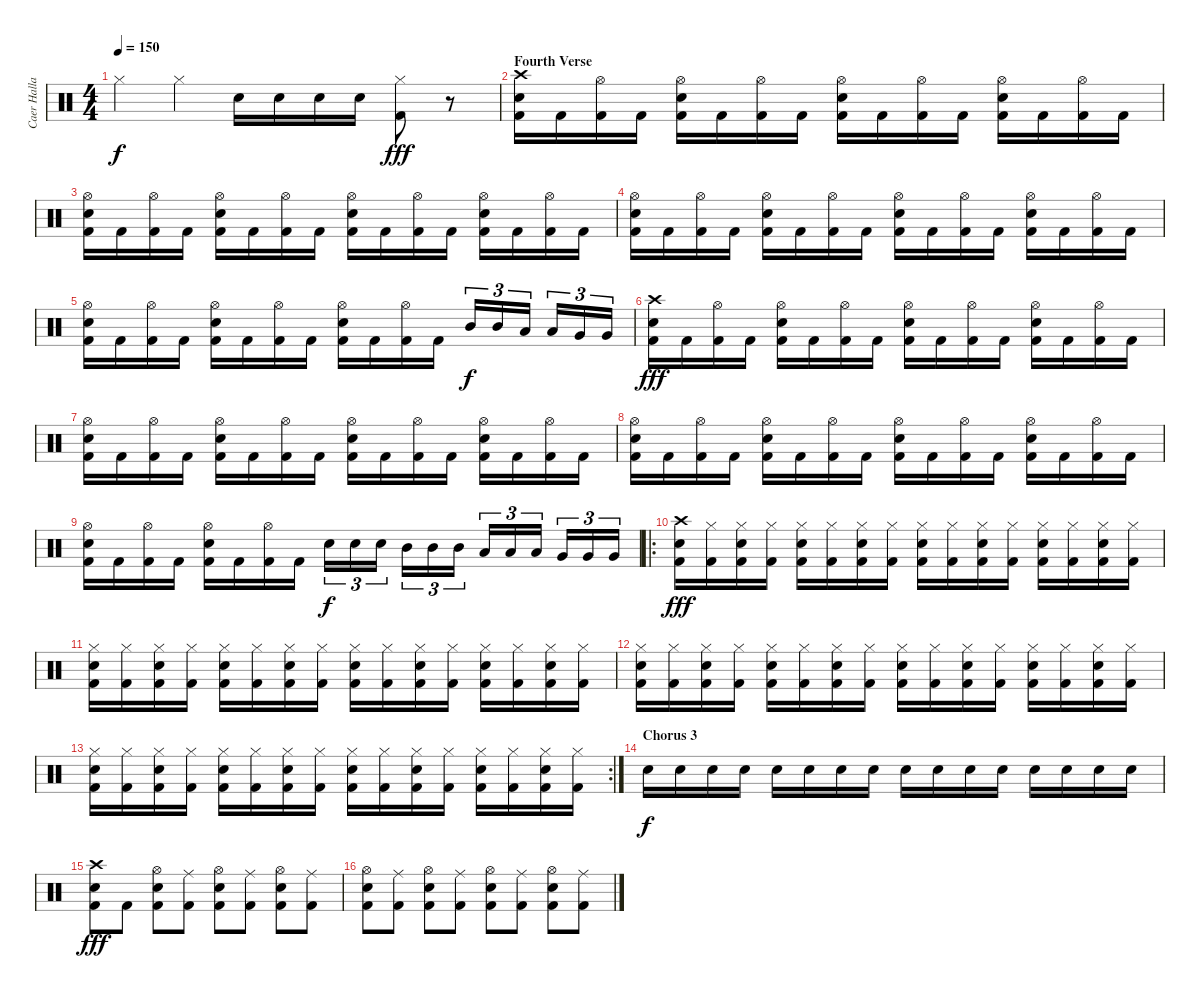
\track ("Caer Hallam Generis" "Caer Halla") {instrument percussion}
\staff {score}
\articulation defaults
\ts (4 4)
\tempo 150
\clef neutral
\ks c "Hi-Hat (closed)".4{dy f} "Hi-Hat (closed)".4 "Snare (hit) 2".16 "Snare (hit) 2".16 "Snare (hit) 2".16 "Snare (hit) 2".16
("Hi-Hat (closed)" "Kick (hit) 2").8{dy fff} r.8 |
\section ("" "Fourth Verse")
("Crash high (hit)" "Snare (hit) 2" "Kick (hit) 2").16 "Kick (hit) 2".16 ("Hi-Hat (open)" "Kick (hit) 2").16 "Kick (hit) 2".16 ("Hi-Hat (open)" "Snare (hit) 2" "Kick (hit) 2").16 "Kick (hit) 2".16 ("Hi-Hat (open)" "Kick (hit) 2").16 "Kick (hit) 2".16 ("Hi-Hat (open)" "Snare (hit) 2" "Kick (hit) 2").16 "Kick (hit) 2".16 ("Hi-Hat (open)" "Kick (hit) 2").16 "Kick (hit) 2".16 ("Hi-Hat (open)" "Snare (hit) 2" "Kick (hit) 2").16 "Kick (hit) 2".16 ("Hi-Hat (open)" "Kick (hit) 2").16 "Kick (hit) 2".16 |
("Hi-Hat (open)" "Snare (hit) 2" "Kick (hit) 2").16 "Kick (hit) 2".16 ("Hi-Hat (open)" "Kick (hit) 2").16 "Kick (hit) 2".16 ("Hi-Hat (open)" "Snare (hit) 2" "Kick (hit) 2").16 "Kick (hit) 2".16 ("Hi-Hat (open)" "Kick (hit) 2").16 "Kick (hit) 2".16 ("Hi-Hat (open)" "Snare (hit) 2" "Kick (hit) 2").16 "Kick (hit) 2".16 ("Hi-Hat (open)" "Kick (hit) 2").16 "Kick (hit) 2".16 ("Hi-Hat (open)" "Snare (hit) 2" "Kick (hit) 2").16 "Kick (hit) 2".16 ("Hi-Hat (open)" "Kick (hit) 2").16 "Kick (hit) 2".16 |
("Hi-Hat (open)" "Snare (hit) 2" "Kick (hit) 2").16 "Kick (hit) 2".16 ("Hi-Hat (open)" "Kick (hit) 2").16 "Kick (hit) 2".16 ("Hi-Hat (open)" "Snare (hit) 2" "Kick (hit) 2").16 "Kick (hit) 2".16 ("Hi-Hat (open)" "Kick (hit) 2").16 "Kick (hit) 2".16 ("Hi-Hat (open)" "Snare (hit) 2" "Kick (hit) 2").16 "Kick (hit) 2".16 ("Hi-Hat (open)" "Kick (hit) 2").16 "Kick (hit) 2".16 ("Hi-Hat (open)" "Snare (hit) 2" "Kick (hit) 2").16 "Kick (hit) 2".16 ("Hi-Hat (open)" "Kick (hit) 2").16 "Kick (hit) 2".16 |
("Hi-Hat (open)" "Snare (hit) 2" "Kick (hit) 2").16 "Kick (hit) 2".16 ("Hi-Hat (open)" "Kick (hit) 2").16 "Kick (hit) 2".16 ("Hi-Hat (open)" "Snare (hit) 2" "Kick (hit) 2").16 "Kick (hit) 2".16 ("Hi-Hat (open)" "Kick (hit) 2").16 "Kick (hit) 2".16 ("Hi-Hat (open)" "Snare (hit) 2" "Kick (hit) 2").16 "Kick (hit) 2".16 ("Hi-Hat (open)" "Kick (hit) 2").16 "Kick (hit) 2".16 "Mid Tom (hit)".16{tu (3 2) dy f} "Mid Tom (hit)".16{tu (3 2)} "Low Tom (hit)".16{tu (3 2)} "Low Tom (hit)".16{tu (3 2)} "Very Low Tom (hit)".16{tu (3 2)} "Very Low Tom (hit)".16{tu (3 2)} |
("Crash high (hit)" "Snare (hit) 2" "Kick (hit) 2").16{dy fff} "Kick (hit) 2".16 ("Hi-Hat (open)" "Kick (hit) 2").16 "Kick (hit) 2".16 ("Hi-Hat (open)" "Snare (hit) 2" "Kick (hit) 2").16 "Kick (hit) 2".16 ("Hi-Hat (open)" "Kick (hit) 2").16 "Kick (hit) 2".16 ("Hi-Hat (open)" "Snare (hit) 2" "Kick (hit) 2").16 "Kick (hit) 2".16 ("Hi-Hat (open)" "Kick (hit) 2").16 "Kick (hit) 2".16 ("Hi-Hat (open)" "Snare (hit) 2" "Kick (hit) 2").16 "Kick (hit) 2".16 ("Hi-Hat (open)" "Kick (hit) 2").16 "Kick (hit) 2".16 |
("Hi-Hat (open)" "Snare (hit) 2" "Kick (hit) 2").16 "Kick (hit) 2".16 ("Hi-Hat (open)" "Kick (hit) 2").16 "Kick (hit) 2".16 ("Hi-Hat (open)" "Snare (hit) 2" "Kick (hit) 2").16 "Kick (hit) 2".16 ("Hi-Hat (open)" "Kick (hit) 2").16 "Kick (hit) 2".16 ("Hi-Hat (open)" "Snare (hit) 2" "Kick (hit) 2").16 "Kick (hit) 2".16 ("Hi-Hat (open)" "Kick (hit) 2").16 "Kick (hit) 2".16 ("Hi-Hat (open)" "Snare (hit) 2" "Kick (hit) 2").16 "Kick (hit) 2".16 ("Hi-Hat (open)" "Kick (hit) 2").16 "Kick (hit) 2".16 |
("Hi-Hat (open)" "Snare (hit) 2" "Kick (hit) 2").16 "Kick (hit) 2".16 ("Hi-Hat (open)" "Kick (hit) 2").16 "Kick (hit) 2".16 ("Hi-Hat (open)" "Snare (hit) 2" "Kick (hit) 2").16 "Kick (hit) 2".16 ("Hi-Hat (open)" "Kick (hit) 2").16 "Kick (hit) 2".16 ("Hi-Hat (open)" "Snare (hit) 2" "Kick (hit) 2").16 "Kick (hit) 2".16 ("Hi-Hat (open)" "Kick (hit) 2").16 "Kick (hit) 2".16 ("Hi-Hat (open)" "Snare (hit) 2" "Kick (hit) 2").16 "Kick (hit) 2".16 ("Hi-Hat (open)" "Kick (hit) 2").16 "Kick (hit) 2".16 |
("Hi-Hat (open)" "Snare (hit) 2" "Kick (hit) 2").16 "Kick (hit) 2".16 ("Hi-Hat (open)" "Kick (hit) 2").16 "Kick (hit) 2".16 ("Hi-Hat (open)" "Snare (hit) 2" "Kick (hit) 2").16 "Kick (hit) 2".16 ("Hi-Hat (open)" "Kick (hit) 2").16 "Kick (hit) 2".16 "Snare (hit) 2".16{tu (3 2) dy f} "Snare (hit) 2".16{tu (3 2)} "Snare (hit) 2".16{tu (3 2)} "Mid Tom (hit)".16{tu (3 2)} "Mid Tom (hit)".16{tu (3 2)} "Mid Tom (hit)".16{tu (3 2)} "Low Tom (hit)".16{tu (3 2)} "Low Tom (hit)".16{tu (3 2)} "Low Tom (hit)".16{tu (3 2)} "Very Low Tom (hit)".16{tu (3 2)} "Very Low Tom (hit)".16{tu (3 2)} "Very Low Tom (hit)".16{tu (3 2)} |
\ro
("Crash high (hit)" "Snare (hit) 2" "Kick (hit) 2").16{dy fff} ("Hi-Hat (closed)" "Kick (hit) 2").16 ("Hi-Hat (closed)" "Snare (hit) 2" "Kick (hit) 2").16 ("Hi-Hat (closed)" "Kick (hit) 2").16 ("Hi-Hat (closed)" "Snare (hit) 2" "Kick (hit) 2").16 ("Hi-Hat (closed)" "Kick (hit) 2").16 ("Hi-Hat (closed)" "Snare (hit) 2" "Kick (hit) 2").16 ("Hi-Hat (closed)" "Kick (hit) 2").16 ("Hi-Hat (closed)" "Snare (hit) 2" "Kick (hit) 2").16 ("Hi-Hat (closed)" "Kick (hit) 2").16 ("Hi-Hat (closed)" "Snare (hit) 2" "Kick (hit) 2").16 ("Hi-Hat (closed)" "Kick (hit) 2").16 ("Hi-Hat (closed)" "Snare (hit) 2" "Kick (hit) 2").16 ("Hi-Hat (closed)" "Kick (hit) 2").16 ("Hi-Hat (closed)" "Snare (hit) 2" "Kick (hit) 2").16 ("Hi-Hat (closed)" "Kick (hit) 2").16 |
("Hi-Hat (closed)" "Snare (hit) 2" "Kick (hit) 2").16 ("Hi-Hat (closed)" "Kick (hit) 2").16 ("Hi-Hat (closed)" "Snare (hit) 2" "Kick (hit) 2").16 ("Hi-Hat (closed)" "Kick (hit) 2").16 ("Hi-Hat (closed)" "Snare (hit) 2" "Kick (hit) 2").16 ("Hi-Hat (closed)" "Kick (hit) 2").16 ("Hi-Hat (closed)" "Snare (hit) 2" "Kick (hit) 2").16 ("Hi-Hat (closed)" "Kick (hit) 2").16 ("Hi-Hat (closed)" "Snare (hit) 2" "Kick (hit) 2").16 ("Hi-Hat (closed)" "Kick (hit) 2").16 ("Hi-Hat (closed)" "Snare (hit) 2" "Kick (hit) 2").16 ("Hi-Hat (closed)" "Kick (hit) 2").16 ("Hi-Hat (closed)" "Snare (hit) 2" "Kick (hit) 2").16 ("Hi-Hat (closed)" "Kick (hit) 2").16 ("Hi-Hat (closed)" "Snare (hit) 2" "Kick (hit) 2").16 ("Hi-Hat (closed)" "Kick (hit) 2").16 |
("Hi-Hat (closed)" "Snare (hit) 2" "Kick (hit) 2").16 ("Hi-Hat (closed)" "Kick (hit) 2").16 ("Hi-Hat (closed)" "Snare (hit) 2" "Kick (hit) 2").16 ("Hi-Hat (closed)" "Kick (hit) 2").16 ("Hi-Hat (closed)" "Snare (hit) 2" "Kick (hit) 2").16 ("Hi-Hat (closed)" "Kick (hit) 2").16 ("Hi-Hat (closed)" "Snare (hit) 2" "Kick (hit) 2").16 ("Hi-Hat (closed)" "Kick (hit) 2").16 ("Hi-Hat (closed)" "Snare (hit) 2" "Kick (hit) 2").16 ("Hi-Hat (closed)" "Kick (hit) 2").16 ("Hi-Hat (closed)" "Snare (hit) 2" "Kick (hit) 2").16 ("Hi-Hat (closed)" "Kick (hit) 2").16 ("Hi-Hat (closed)" "Snare (hit) 2" "Kick (hit) 2").16 ("Hi-Hat (closed)" "Kick (hit) 2").16 ("Hi-Hat (closed)" "Snare (hit) 2" "Kick (hit) 2").16 ("Hi-Hat (closed)" "Kick (hit) 2").16 |
\rc 2
("Hi-Hat (closed)" "Snare (hit) 2" "Kick (hit) 2").16 ("Hi-Hat (closed)" "Kick (hit) 2").16 ("Hi-Hat (closed)" "Snare (hit) 2" "Kick (hit) 2").16 ("Hi-Hat (closed)" "Kick (hit) 2").16 ("Hi-Hat (closed)" "Snare (hit) 2" "Kick (hit) 2").16 ("Hi-Hat (closed)" "Kick (hit) 2").16 ("Hi-Hat (closed)" "Snare (hit) 2" "Kick (hit) 2").16 ("Hi-Hat (closed)" "Kick (hit) 2").16 ("Hi-Hat (closed)" "Snare (hit) 2" "Kick (hit) 2").16 ("Hi-Hat (closed)" "Kick (hit) 2").16 ("Hi-Hat (closed)" "Snare (hit) 2" "Kick (hit) 2").16 ("Hi-Hat (closed)" "Kick (hit) 2").16 ("Hi-Hat (closed)" "Snare (hit) 2" "Kick (hit) 2").16 ("Hi-Hat (closed)" "Kick (hit) 2").16 ("Hi-Hat (closed)" "Snare (hit) 2" "Kick (hit) 2").16 ("Hi-Hat (closed)" "Kick (hit) 2").16 |
\section ("" "Chorus 3")
"Snare (hit) 2".16{dy f} "Snare (hit) 2".16 "Snare (hit) 2".16 "Snare (hit) 2".16 "Snare (hit) 2".16 "Snare (hit) 2".16 "Snare (hit) 2".16 "Snare (hit) 2".16 "Snare (hit) 2".16 "Snare (hit) 2".16 "Snare (hit) 2".16 "Snare (hit) 2".16 "Snare (hit) 2".16 "Snare (hit) 2".16 "Snare (hit) 2".16 "Snare (hit) 2".16 |
("Crash high (hit)" "Snare (hit) 2" "Kick (hit) 2").8{dy fff} "Kick (hit) 2".8 ("Hi-Hat (open)" "Snare (hit) 2" "Kick (hit) 2").8 ("Ride (middle)" "Kick (hit) 2").8 ("Hi-Hat (open)" "Snare (hit) 2" "Kick (hit) 2").8 ("Ride (middle)" "Kick (hit) 2").8 ("Hi-Hat (open)" "Snare (hit) 2" "Kick (hit) 2").8 ("Ride (middle)" "Kick (hit) 2").8 |
("Hi-Hat (open)" "Snare (hit) 2" "Kick (hit) 2").8 ("Ride (middle)" "Kick (hit) 2").8 ("Hi-Hat (open)" "Snare (hit) 2" "Kick (hit) 2").8 ("Ride (middle)" "Kick (hit) 2").8 ("Hi-Hat (open)" "Snare (hit) 2" "Kick (hit) 2").8 ("Ride (middle)" "Kick (hit) 2").8 ("Hi-Hat (open)" "Snare (hit) 2" "Kick (hit) 2").8 ("Ride (middle)" "Kick (hit) 2").8
